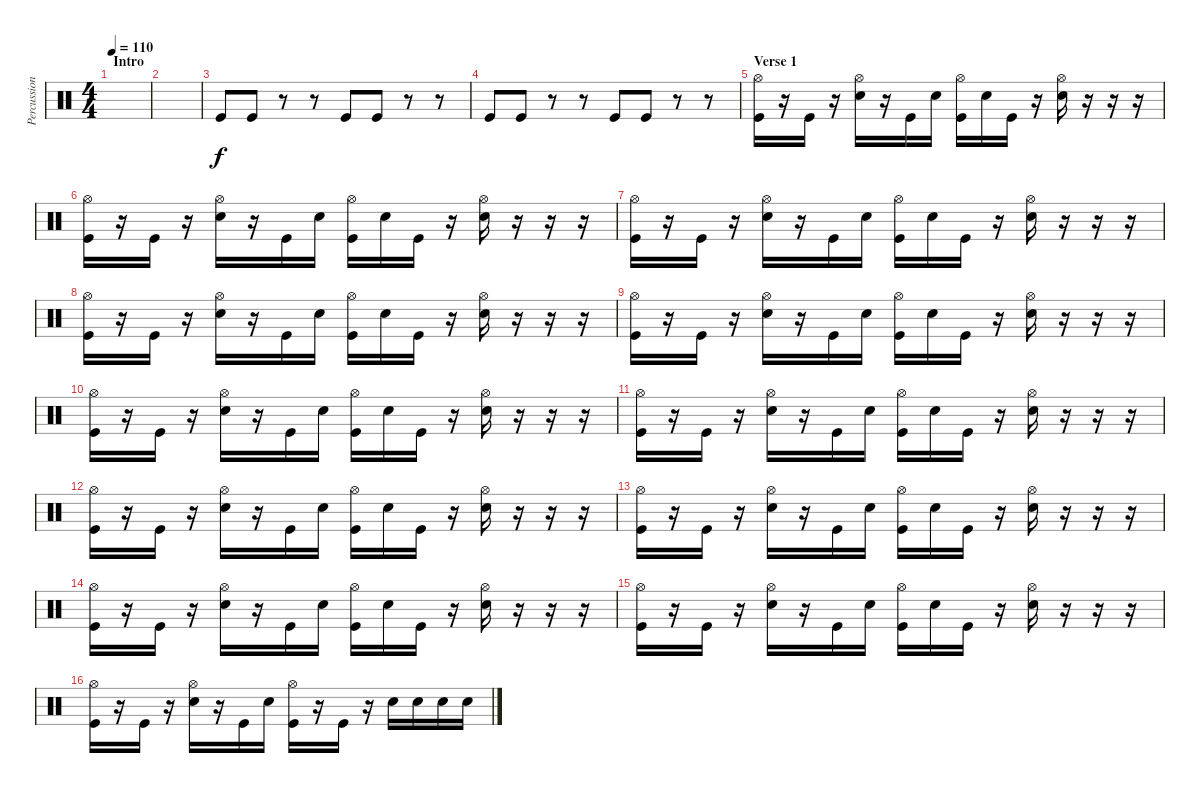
\track ("Percussion" "Percussion") {instrument percussion}
\staff {score}
\articulation defaults
\ts (4 4)
\section ("" "Intro")
\tempo 110
\clef neutral
\ks c
|
|
"Kick (hit)".8 "Kick (hit)".8 r.8 r.8 "Kick (hit)".8 "Kick (hit)".8 r.8 r.8 |
"Kick (hit)".8 "Kick (hit)".8 r.8 r.8 "Kick (hit)".8 "Kick (hit)".8 r.8 r.8 |
\section ("" "Verse 1")
("Kick (hit)" "Hi-Hat (open)").16 r.16 "Kick (hit)".16 r.16 ("Electric Snare (hit)" "Hi-Hat (open)").16 r.16 "Kick (hit)".16 "Electric Snare (hit)".16 ("Kick (hit)" "Hi-Hat (open)").16 "Electric Snare (hit)".16 "Kick (hit)".16 r.16 ("Electric Snare (hit)" "Hi-Hat (open)").16 r.16 r.16 r.16 |
("Kick (hit)" "Hi-Hat (open)").16 r.16 "Kick (hit)".16 r.16 ("Electric Snare (hit)" "Hi-Hat (open)").16 r.16 "Kick (hit)".16 "Electric Snare (hit)".16 ("Kick (hit)" "Hi-Hat (open)").16 "Electric Snare (hit)".16 "Kick (hit)".16 r.16 ("Electric Snare (hit)" "Hi-Hat (open)").16 r.16 r.16 r.16 |
("Kick (hit)" "Hi-Hat (open)").16 r.16 "Kick (hit)".16 r.16 ("Electric Snare (hit)" "Hi-Hat (open)").16 r.16 "Kick (hit)".16 "Electric Snare (hit)".16 ("Kick (hit)" "Hi-Hat (open)").16 "Electric Snare (hit)".16 "Kick (hit)".16 r.16 ("Electric Snare (hit)" "Hi-Hat (open)").16 r.16 r.16 r.16 |
("Kick (hit)" "Hi-Hat (open)").16 r.16 "Kick (hit)".16 r.16 ("Electric Snare (hit)" "Hi-Hat (open)").16 r.16 "Kick (hit)".16 "Electric Snare (hit)".16 ("Kick (hit)" "Hi-Hat (open)").16 "Electric Snare (hit)".16 "Kick (hit)".16 r.16 ("Electric Snare (hit)" "Hi-Hat (open)").16 r.16 r.16 r.16 |
("Kick (hit)" "Hi-Hat (open)").16 r.16 "Kick (hit)".16 r.16 ("Electric Snare (hit)" "Hi-Hat (open)").16 r.16 "Kick (hit)".16 "Electric Snare (hit)".16 ("Kick (hit)" "Hi-Hat (open)").16 "Electric Snare (hit)".16 "Kick (hit)".16 r.16 ("Electric Snare (hit)" "Hi-Hat (open)").16 r.16 r.16 r.16 |
("Kick (hit)" "Hi-Hat (open)").16 r.16 "Kick (hit)".16 r.16 ("Electric Snare (hit)" "Hi-Hat (open)").16 r.16 "Kick (hit)".16 "Electric Snare (hit)".16 ("Kick (hit)" "Hi-Hat (open)").16 "Electric Snare (hit)".16 "Kick (hit)".16 r.16 ("Electric Snare (hit)" "Hi-Hat (open)").16 r.16 r.16 r.16 |
("Kick (hit)" "Hi-Hat (open)").16 r.16 "Kick (hit)".16 r.16 ("Electric Snare (hit)" "Hi-Hat (open)").16 r.16 "Kick (hit)".16 "Electric Snare (hit)".16 ("Kick (hit)" "Hi-Hat (open)").16 "Electric Snare (hit)".16 "Kick (hit)".16 r.16 ("Electric Snare (hit)" "Hi-Hat (open)").16 r.16 r.16 r.16 |
("Kick (hit)" "Hi-Hat (open)").16 r.16 "Kick (hit)".16 r.16 ("Electric Snare (hit)" "Hi-Hat (open)").16 r.16 "Kick (hit)".16 "Electric Snare (hit)".16 ("Kick (hit)" "Hi-Hat (open)").16 "Electric Snare (hit)".16 "Kick (hit)".16 r.16 ("Electric Snare (hit)" "Hi-Hat (open)").16 r.16 r.16 r.16 |
("Kick (hit)" "Hi-Hat (open)").16 r.16 "Kick (hit)".16 r.16 ("Electric Snare (hit)" "Hi-Hat (open)").16 r.16 "Kick (hit)".16 "Electric Snare (hit)".16 ("Kick (hit)" "Hi-Hat (open)").16 "Electric Snare (hit)".16 "Kick (hit)".16 r.16 ("Electric Snare (hit)" "Hi-Hat (open)").16 r.16 r.16 r.16 |
("Kick (hit)" "Hi-Hat (open)").16 r.16 "Kick (hit)".16 r.16 ("Electric Snare (hit)" "Hi-Hat (open)").16 r.16 "Kick (hit)".16 "Electric Snare (hit)".16 ("Kick (hit)" "Hi-Hat (open)").16 "Electric Snare (hit)".16 "Kick (hit)".16 r.16 ("Electric Snare (hit)" "Hi-Hat (open)").16 r.16 r.16 r.16 |
("Kick (hit)" "Hi-Hat (open)").16 r.16 "Kick (hit)".16 r.16 ("Electric Snare (hit)" "Hi-Hat (open)").16 r.16 "Kick (hit)".16 "Electric Snare (hit)".16 ("Kick (hit)" "Hi-Hat (open)").16 "Electric Snare (hit)".16 "Kick (hit)".16 r.16 ("Electric Snare (hit)" "Hi-Hat (open)").16 r.16 r.16 r.16 |
("Kick (hit)" "Hi-Hat (open)").16 r.16 "Kick (hit)".16 r.16 ("Electric Snare (hit)" "Hi-Hat (open)").16 r.16 "Kick (hit)".16 "Electric Snare (hit)".16 ("Kick (hit)" "Hi-Hat (open)").16 r.16 "Kick (hit)".16 r.16 "Snare (hit) 2".16 "Snare (hit) 2".16 "Snare (hit) 2".16 "Snare (hit) 2".16
